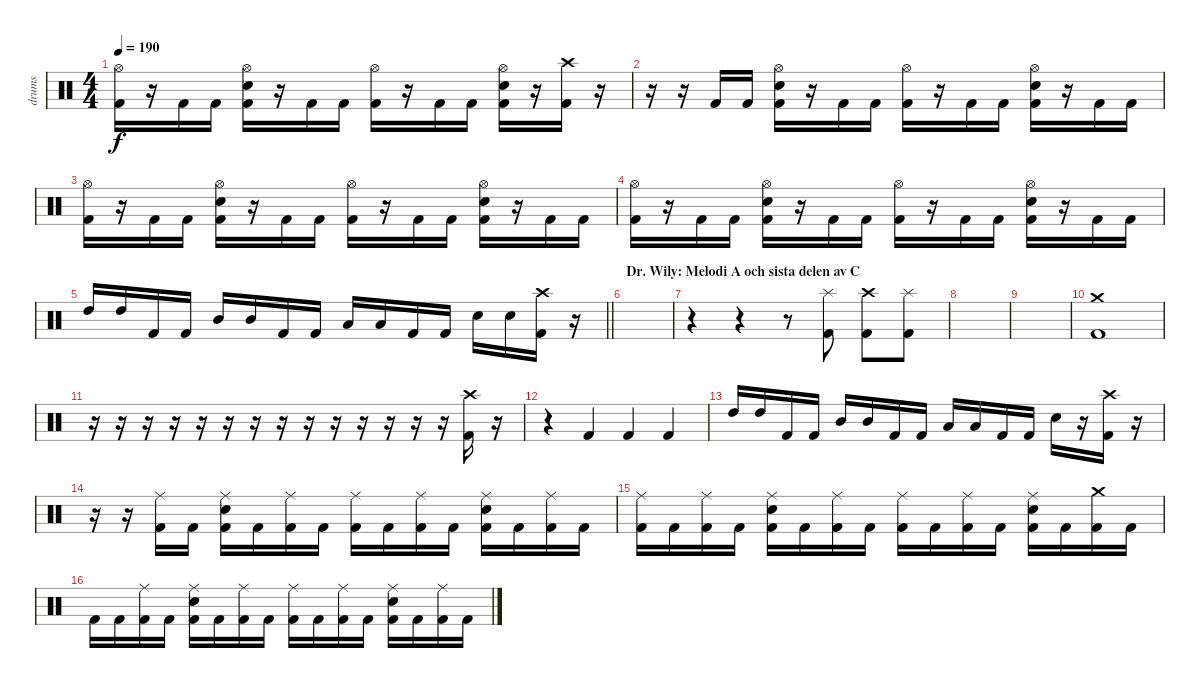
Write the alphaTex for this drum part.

\track ("drums" "drums") {instrument percussion}
\staff {score}
\articulation defaults
\ts (4 4)
\tempo 190
\clef neutral
\ks c
("Hi-Hat (open)" "Kick (hit) 2").16{dy f} r.16 "Kick (hit) 2".16 "Kick (hit) 2".16 ("Hi-Hat (open)" "Electric Snare (hit)" "Kick (hit) 2").16 r.16 "Kick (hit) 2".16 "Kick (hit) 2".16 ("Hi-Hat (open)" "Kick (hit) 2").16 r.16 "Kick (hit) 2".16 "Kick (hit) 2".16 ("Hi-Hat (open)" "Electric Snare (hit)" "Kick (hit) 2").16 r.16 ("Crash high (hit)" "Kick (hit) 2").16 r.16 |
r.16 r.16 "Kick (hit) 2".16 "Kick (hit) 2".16 ("Hi-Hat (open)" "Electric Snare (hit)" "Kick (hit) 2").16 r.16 "Kick (hit) 2".16 "Kick (hit) 2".16 ("Hi-Hat (open)" "Kick (hit) 2").16 r.16 "Kick (hit) 2".16 "Kick (hit) 2".16 ("Hi-Hat (open)" "Electric Snare (hit)" "Kick (hit) 2").16 r.16 "Kick (hit) 2".16 "Kick (hit) 2".16 |
("Hi-Hat (open)" "Kick (hit) 2").16 r.16 "Kick (hit) 2".16 "Kick (hit) 2".16 ("Hi-Hat (open)" "Electric Snare (hit)" "Kick (hit) 2").16 r.16 "Kick (hit) 2".16 "Kick (hit) 2".16 ("Hi-Hat (open)" "Kick (hit) 2").16 r.16 "Kick (hit) 2".16 "Kick (hit) 2".16 ("Hi-Hat (open)" "Electric Snare (hit)" "Kick (hit) 2").16 r.16 "Kick (hit) 2".16 "Kick (hit) 2".16 |
("Hi-Hat (open)" "Kick (hit) 2").16 r.16 "Kick (hit) 2".16 "Kick (hit) 2".16 ("Hi-Hat (open)" "Electric Snare (hit)" "Kick (hit) 2").16 r.16 "Kick (hit) 2".16 "Kick (hit) 2".16 ("Hi-Hat (open)" "Kick (hit) 2").16 r.16 "Kick (hit) 2".16 "Kick (hit) 2".16 ("Hi-Hat (open)" "Electric Snare (hit)" "Kick (hit) 2").16 r.16 "Kick (hit) 2".16 "Kick (hit) 2".16 |
\barLineRight lightlight "High Tom (hit)".16 "High Tom (hit)".16 "Kick (hit) 2".16 "Kick (hit) 2".16 "Mid Tom (hit)".16 "Mid Tom (hit)".16 "Kick (hit) 2".16 "Kick (hit) 2".16 "Low Tom (hit)".16 "Low Tom (hit)".16 "Kick (hit) 2".16 "Kick (hit) 2".16 "Electric Snare (hit)".16 "Electric Snare (hit)".16
("Crash high (hit)" "Kick (hit) 2").16 r.16 |
\section ("" "Dr. Wily: Melodi A och sista delen av C")
|
r.4 r.4 r.8 ("Splash (hit)" "Kick (hit) 2").8 ("Crash high (hit)" "Kick (hit) 2").8 ("Splash (hit)" "Kick (hit) 2").8 |
|
|
("Crash medium (hit)" "Kick (hit) 2").1 |
r.16 r.16 r.16 r.16 r.16 r.16 r.16 r.16 r.16 r.16 r.16 r.16 r.16 r.16 ("Crash high (hit)" "Kick (hit) 2").16 r.16 |
r.4 "Kick (hit) 2".4 "Kick (hit) 2".4 "Kick (hit) 2".4 |
"High Tom (hit)".16 "High Tom (hit)".16 "Kick (hit) 2".16 "Kick (hit) 2".16 "Mid Tom (hit)".16 "Mid Tom (hit)".16 "Kick (hit) 2".16 "Kick (hit) 2".16 "Low Tom (hit)".16 "Low Tom (hit)".16 "Kick (hit) 2".16 "Kick (hit) 2".16 "Electric Snare (hit)".16 r.16 ("Crash high (hit)" "Kick (hit) 2").16 r.16 |
r.16 r.16 ("Ride (middle)" "Kick (hit) 2").16 "Kick (hit) 2".16 ("Ride (middle)" "Electric Snare (hit)" "Kick (hit) 2").16 "Kick (hit) 2".16 ("Ride (middle)" "Kick (hit) 2").16 "Kick (hit) 2".16 ("Ride (middle)" "Kick (hit) 2").16 "Kick (hit) 2".16 ("Ride (middle)" "Kick (hit) 2").16 "Kick (hit) 2".16 ("Ride (middle)" "Electric Snare (hit)" "Kick (hit) 2").16 "Kick (hit) 2".16 ("Ride (middle)" "Kick (hit) 2").16 "Kick (hit) 2".16 |
("Ride (middle)" "Kick (hit) 2").16 "Kick (hit) 2".16 ("Ride (middle)" "Kick (hit) 2").16 "Kick (hit) 2".16 ("Ride (middle)" "Electric Snare (hit)" "Kick (hit) 2").16 "Kick (hit) 2".16 ("Ride (middle)" "Kick (hit) 2").16 "Kick (hit) 2".16 ("Ride (middle)" "Kick (hit) 2").16 "Kick (hit) 2".16 ("Ride (middle)" "Kick (hit) 2").16 "Kick (hit) 2".16 ("Ride (middle)" "Electric Snare (hit)" "Kick (hit) 2").16 "Kick (hit) 2".16 ("Crash medium (hit)" "Kick (hit) 2").16 "Kick (hit) 2".16 |
"Kick (hit) 2".16 "Kick (hit) 2".16 ("Ride (middle)" "Kick (hit) 2").16 "Kick (hit) 2".16 ("Ride (middle)" "Electric Snare (hit)" "Kick (hit) 2").16 "Kick (hit) 2".16 ("Ride (middle)" "Kick (hit) 2").16 "Kick (hit) 2".16 ("Ride (middle)" "Kick (hit) 2").16 "Kick (hit) 2".16 ("Ride (middle)" "Kick (hit) 2").16 "Kick (hit) 2".16 ("Ride (middle)" "Electric Snare (hit)" "Kick (hit) 2").16 "Kick (hit) 2".16 ("Ride (middle)" "Kick (hit) 2").16 "Kick (hit) 2".16
